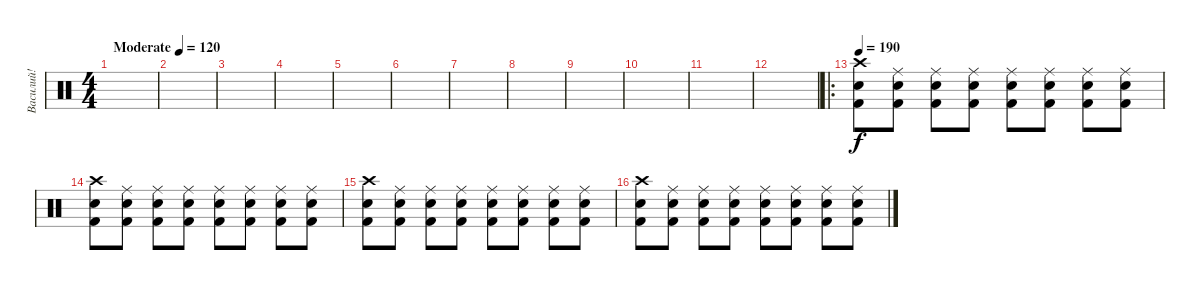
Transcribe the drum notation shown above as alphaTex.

\track ("Василий!" "Василий!") {instrument percussion}
\staff {score}
\articulation defaults
\ts (4 4)
\tempo (120 "Moderate")
\clef neutral
\ks c
|
|
|
|
|
|
|
|
|
|
|
|
\ro
\tempo 190
("Kick (hit) 2" "Electric Snare (hit)" "Crash high (hit)").8 ("Kick (hit) 2" "Electric Snare (hit)" "Ride (middle)").8 ("Kick (hit) 2" "Electric Snare (hit)" "Ride (middle)").8 ("Kick (hit) 2" "Electric Snare (hit)" "Ride (middle)").8 ("Kick (hit) 2" "Electric Snare (hit)" "Ride (middle)").8 ("Kick (hit) 2" "Electric Snare (hit)" "Ride (middle)").8 ("Kick (hit) 2" "Electric Snare (hit)" "Ride (middle)").8 ("Kick (hit) 2" "Electric Snare (hit)" "Ride (middle)").8 |
("Kick (hit) 2" "Electric Snare (hit)" "Crash high (hit)").8 ("Kick (hit) 2" "Electric Snare (hit)" "Ride (middle)").8 ("Kick (hit) 2" "Electric Snare (hit)" "Ride (middle)").8 ("Kick (hit) 2" "Electric Snare (hit)" "Ride (middle)").8 ("Kick (hit) 2" "Electric Snare (hit)" "Ride (middle)").8 ("Kick (hit) 2" "Electric Snare (hit)" "Ride (middle)").8 ("Kick (hit) 2" "Electric Snare (hit)" "Ride (middle)").8 ("Kick (hit) 2" "Electric Snare (hit)" "Ride (middle)").8 |
("Kick (hit) 2" "Electric Snare (hit)" "Crash high (hit)").8 ("Kick (hit) 2" "Electric Snare (hit)" "Ride (middle)").8 ("Kick (hit) 2" "Electric Snare (hit)" "Ride (middle)").8 ("Kick (hit) 2" "Electric Snare (hit)" "Ride (middle)").8 ("Kick (hit) 2" "Electric Snare (hit)" "Ride (middle)").8 ("Kick (hit) 2" "Electric Snare (hit)" "Ride (middle)").8 ("Kick (hit) 2" "Electric Snare (hit)" "Ride (middle)").8 ("Kick (hit) 2" "Electric Snare (hit)" "Ride (middle)").8 |
("Kick (hit) 2" "Electric Snare (hit)" "Crash high (hit)").8 ("Kick (hit) 2" "Electric Snare (hit)" "Ride (middle)").8 ("Kick (hit) 2" "Electric Snare (hit)" "Ride (middle)").8 ("Kick (hit) 2" "Electric Snare (hit)" "Ride (middle)").8 ("Kick (hit) 2" "Electric Snare (hit)" "Ride (middle)").8 ("Kick (hit) 2" "Electric Snare (hit)" "Ride (middle)").8 ("Kick (hit) 2" "Electric Snare (hit)" "Ride (middle)").8 ("Kick (hit) 2" "Electric Snare (hit)" "Ride (middle)").8
